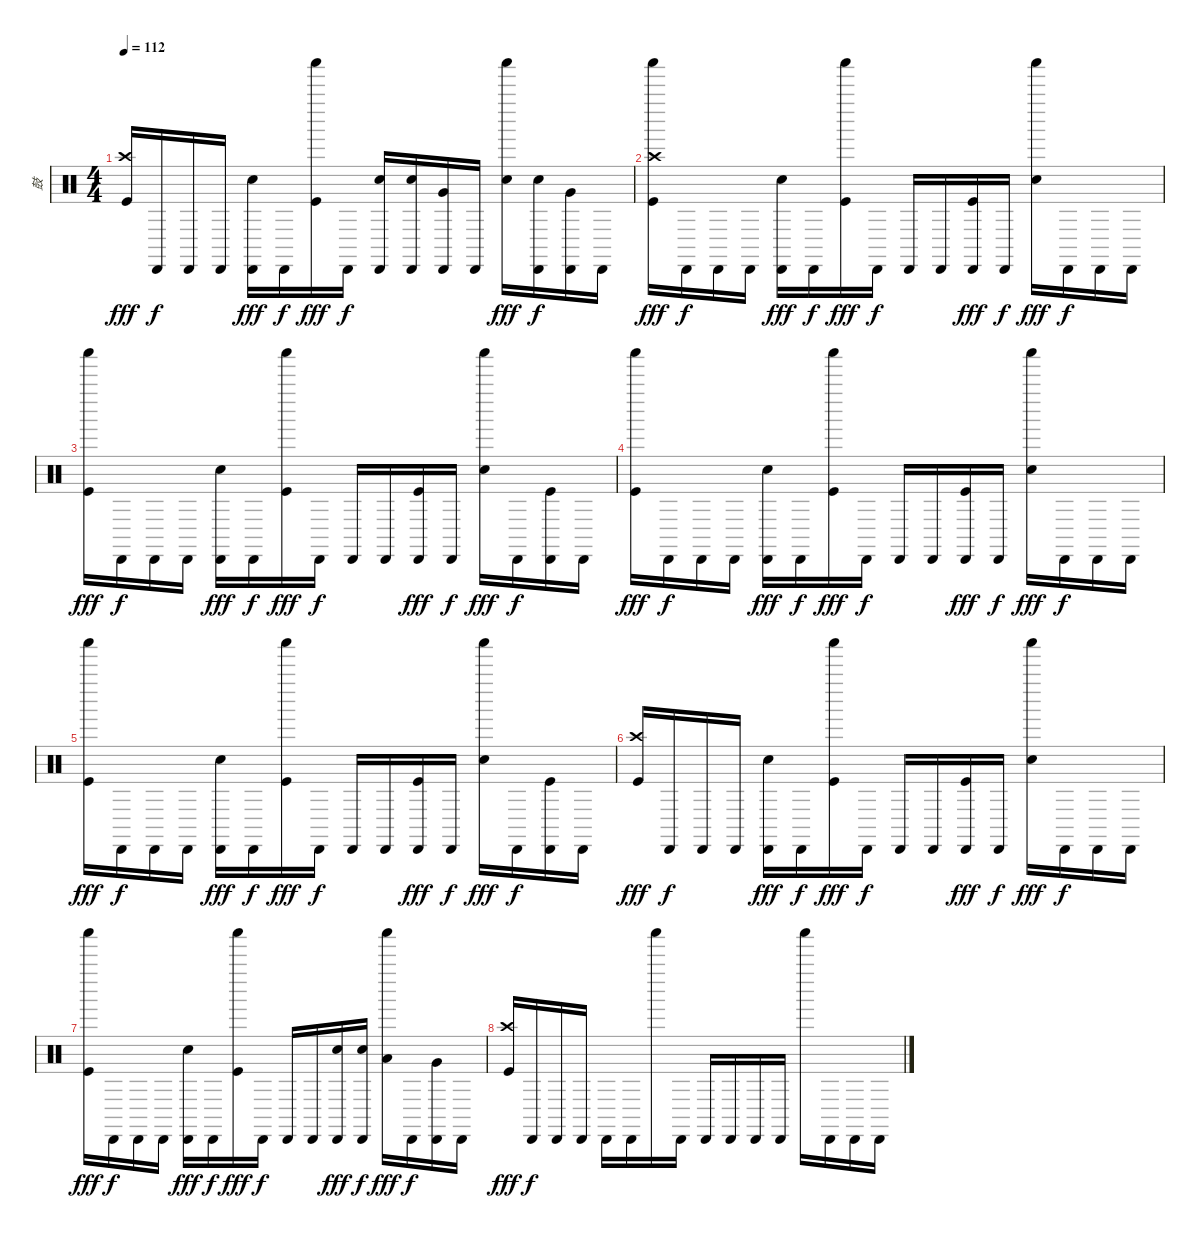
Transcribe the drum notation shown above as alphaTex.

\track ("鼓" "鼓") {instrument percussion}
\staff {score}
\articulation defaults
\ts (4 4)
\tempo 112
\clef neutral
\ks c
("Crash high (hit)" "Kick (hit)").16{dy fff} "Cabasa (hit)".16{dy f} "Cabasa (hit)".16 "Cabasa (hit)".16 ("Cabasa (hit)" "Electric Snare (hit)").16{dy fff} "Cabasa (hit)".16{dy f} ("Shaker (hit)" "Kick (hit)").16{dy fff} "Cabasa (hit)".16{dy f} ("Cabasa (hit)" "Electric Snare (hit)").16 ("Cabasa (hit)" "Electric Snare (hit)").16 ("Cabasa (hit)" "Very Low Tom (hit)").16 "Cabasa (hit)".16 ("Shaker (hit)" "Electric Snare (hit)").16{dy fff} ("Cabasa (hit)" "Electric Snare (hit)").16{dy f} ("Cabasa (hit)" "Very Low Tom (hit)").16 "Cabasa (hit)".16 |
("Shaker (hit)" "Crash high (hit)" "Kick (hit)").16{dy fff} "Cabasa (hit)".16{dy f} "Cabasa (hit)".16 "Cabasa (hit)".16 ("Cabasa (hit)" "Electric Snare (hit)").16{dy fff} "Cabasa (hit)".16{dy f} ("Shaker (hit)" "Kick (hit)").16{dy fff} "Cabasa (hit)".16{dy f} "Cabasa (hit)".16 "Cabasa (hit)".16 ("Cabasa (hit)" "Kick (hit)").16{dy fff} "Cabasa (hit)".16{dy f} ("Shaker (hit)" "Electric Snare (hit)").16{dy fff} "Cabasa (hit)".16{dy f} "Cabasa (hit)".16 "Cabasa (hit)".16 |
("Shaker (hit)" "Kick (hit)").16{dy fff} "Cabasa (hit)".16{dy f} "Cabasa (hit)".16 "Cabasa (hit)".16 ("Cabasa (hit)" "Electric Snare (hit)").16{dy fff} "Cabasa (hit)".16{dy f} ("Shaker (hit)" "Kick (hit)").16{dy fff} "Cabasa (hit)".16{dy f} "Cabasa (hit)".16 "Cabasa (hit)".16 ("Cabasa (hit)" "Kick (hit)").16{dy fff} "Cabasa (hit)".16{dy f} ("Shaker (hit)" "Electric Snare (hit)").16{dy fff} "Cabasa (hit)".16{dy f} ("Cabasa (hit)" "Kick (hit)").16 "Cabasa (hit)".16 |
("Shaker (hit)" "Kick (hit)").16{dy fff} "Cabasa (hit)".16{dy f} "Cabasa (hit)".16 "Cabasa (hit)".16 ("Cabasa (hit)" "Electric Snare (hit)").16{dy fff} "Cabasa (hit)".16{dy f} ("Shaker (hit)" "Kick (hit)").16{dy fff} "Cabasa (hit)".16{dy f} "Cabasa (hit)".16 "Cabasa (hit)".16 ("Cabasa (hit)" "Kick (hit)").16{dy fff} "Cabasa (hit)".16{dy f} ("Shaker (hit)" "Electric Snare (hit)").16{dy fff} "Cabasa (hit)".16{dy f} "Cabasa (hit)".16 "Cabasa (hit)".16 |
("Shaker (hit)" "Kick (hit)").16{dy fff} "Cabasa (hit)".16{dy f} "Cabasa (hit)".16 "Cabasa (hit)".16 ("Cabasa (hit)" "Electric Snare (hit)").16{dy fff} "Cabasa (hit)".16{dy f} ("Shaker (hit)" "Kick (hit)").16{dy fff} "Cabasa (hit)".16{dy f} "Cabasa (hit)".16 "Cabasa (hit)".16 ("Cabasa (hit)" "Kick (hit)").16{dy fff} "Cabasa (hit)".16{dy f} ("Shaker (hit)" "Electric Snare (hit)").16{dy fff} "Cabasa (hit)".16{dy f} ("Cabasa (hit)" "Kick (hit)").16 "Cabasa (hit)".16 |
("Crash high (hit)" "Kick (hit)").16{dy fff} "Cabasa (hit)".16{dy f} "Cabasa (hit)".16 "Cabasa (hit)".16 ("Cabasa (hit)" "Electric Snare (hit)").16{dy fff} "Cabasa (hit)".16{dy f} ("Shaker (hit)" "Kick (hit)").16{dy fff} "Cabasa (hit)".16{dy f} "Cabasa (hit)".16 "Cabasa (hit)".16 ("Cabasa (hit)" "Kick (hit)").16{dy fff} "Cabasa (hit)".16{dy f} ("Shaker (hit)" "Electric Snare (hit)").16{dy fff} "Cabasa (hit)".16{dy f} "Cabasa (hit)".16 "Cabasa (hit)".16 |
("Shaker (hit)" "Kick (hit)").16{dy fff} "Cabasa (hit)".16{dy f} "Cabasa (hit)".16 "Cabasa (hit)".16 ("Cabasa (hit)" "Electric Snare (hit)").16{dy fff} "Cabasa (hit)".16{dy f} ("Shaker (hit)" "Kick (hit)").16{dy fff} "Cabasa (hit)".16{dy f} "Cabasa (hit)".16 "Cabasa (hit)".16 ("Cabasa (hit)" "Electric Snare (hit)").16{dy fff} ("Cabasa (hit)" "Electric Snare (hit)").16{dy f} ("Shaker (hit)" "Low Tom (hit)").16{dy fff} "Cabasa (hit)".16{dy f} ("Cabasa (hit)" "Very Low Tom (hit)").16 "Cabasa (hit)".16 |
("Crash high (hit)" "Kick (hit)").16{dy fff} "Cabasa (hit)".16{dy f} "Cabasa (hit)".16 "Cabasa (hit)".16 "Cabasa (hit)".16 "Cabasa (hit)".16 "Shaker (hit)".16 "Cabasa (hit)".16 "Cabasa (hit)".16 "Cabasa (hit)".16 "Cabasa (hit)".16 "Cabasa (hit)".16 "Shaker (hit)".16 "Cabasa (hit)".16 "Cabasa (hit)".16 "Cabasa (hit)".16
